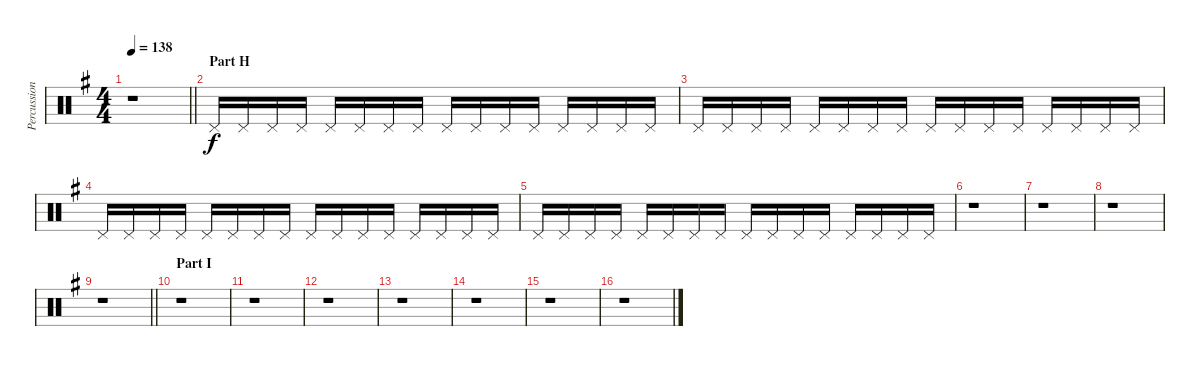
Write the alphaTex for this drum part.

\track ("Percussion" "Percussion") {instrument percussion}
\staff {score}
\articulation defaults
\ts (4 4)
\tempo 138
\clef neutral
\barLineRight lightlight
\ks g
r.1{dy f} |
\section ("" "Part H")
"Pedal Hi-Hat (hit)".16 "Pedal Hi-Hat (hit)".16 "Pedal Hi-Hat (hit)".16 "Pedal Hi-Hat (hit)".16 "Pedal Hi-Hat (hit)".16 "Pedal Hi-Hat (hit)".16 "Pedal Hi-Hat (hit)".16 "Pedal Hi-Hat (hit)".16 "Pedal Hi-Hat (hit)".16 "Pedal Hi-Hat (hit)".16 "Pedal Hi-Hat (hit)".16 "Pedal Hi-Hat (hit)".16 "Pedal Hi-Hat (hit)".16 "Pedal Hi-Hat (hit)".16 "Pedal Hi-Hat (hit)".16 "Pedal Hi-Hat (hit)".16 |
"Pedal Hi-Hat (hit)".16 "Pedal Hi-Hat (hit)".16 "Pedal Hi-Hat (hit)".16 "Pedal Hi-Hat (hit)".16 "Pedal Hi-Hat (hit)".16 "Pedal Hi-Hat (hit)".16 "Pedal Hi-Hat (hit)".16 "Pedal Hi-Hat (hit)".16 "Pedal Hi-Hat (hit)".16 "Pedal Hi-Hat (hit)".16 "Pedal Hi-Hat (hit)".16 "Pedal Hi-Hat (hit)".16 "Pedal Hi-Hat (hit)".16 "Pedal Hi-Hat (hit)".16 "Pedal Hi-Hat (hit)".16 "Pedal Hi-Hat (hit)".16 |
"Pedal Hi-Hat (hit)".16 "Pedal Hi-Hat (hit)".16 "Pedal Hi-Hat (hit)".16 "Pedal Hi-Hat (hit)".16 "Pedal Hi-Hat (hit)".16 "Pedal Hi-Hat (hit)".16 "Pedal Hi-Hat (hit)".16 "Pedal Hi-Hat (hit)".16 "Pedal Hi-Hat (hit)".16 "Pedal Hi-Hat (hit)".16 "Pedal Hi-Hat (hit)".16 "Pedal Hi-Hat (hit)".16 "Pedal Hi-Hat (hit)".16 "Pedal Hi-Hat (hit)".16 "Pedal Hi-Hat (hit)".16 "Pedal Hi-Hat (hit)".16 |
"Pedal Hi-Hat (hit)".16 "Pedal Hi-Hat (hit)".16 "Pedal Hi-Hat (hit)".16 "Pedal Hi-Hat (hit)".16 "Pedal Hi-Hat (hit)".16 "Pedal Hi-Hat (hit)".16 "Pedal Hi-Hat (hit)".16 "Pedal Hi-Hat (hit)".16 "Pedal Hi-Hat (hit)".16 "Pedal Hi-Hat (hit)".16 "Pedal Hi-Hat (hit)".16 "Pedal Hi-Hat (hit)".16 "Pedal Hi-Hat (hit)".16 "Pedal Hi-Hat (hit)".16 "Pedal Hi-Hat (hit)".16 "Pedal Hi-Hat (hit)".16 |
r.1 |
r.1 |
r.1 |
\barLineRight lightlight
r.1 |
\section ("" "Part I")
r.1 |
r.1 |
r.1 |
r.1 |
r.1 |
r.1 |
r.1
